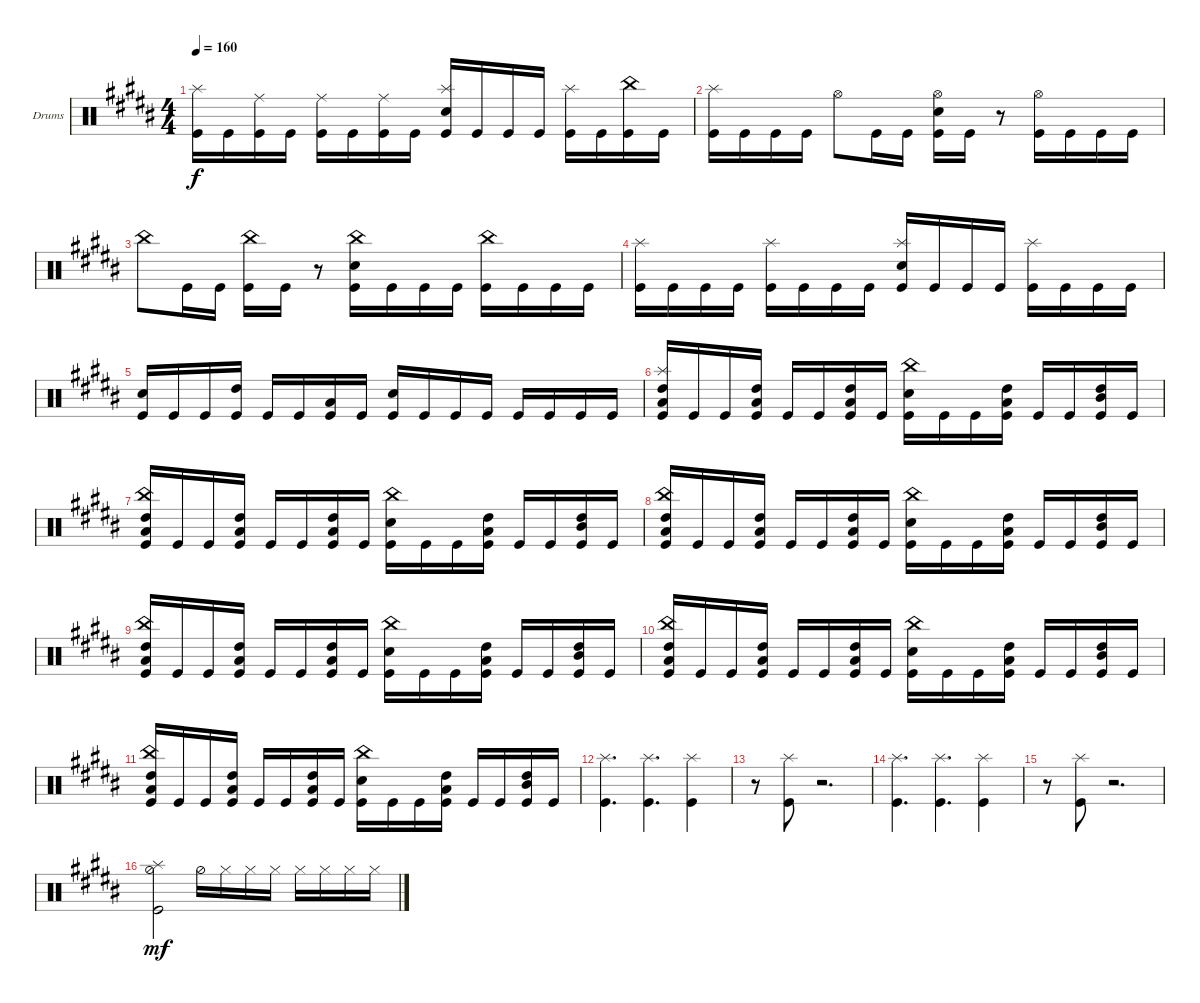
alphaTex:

\defaultSystemsLayout 4
\bracketExtendMode groupsimilarinstruments
\firstSystemTrackNameOrientation horizontal
\otherSystemsTrackNameOrientation horizontal
\track ("Drumkit" "Drums") {instrument percussion}
\staff {score}
\articulation defaults
\ts (4 4)
\tempo 160
\clef neutral
\scale
0.333333
\ks b
("Kick (hit)" "Splash (hit)").16{dy f} "Kick (hit)".16 ("Kick (hit)" "Ride (middle)").16 "Kick (hit)".16 ("Kick (hit)" "Ride (middle)").16 "Kick (hit)".16 ("Kick (hit)" "Ride (middle)").16 "Kick (hit)".16 ("Kick (hit)" "Snare (hit) 2" "Splash (hit)").16 "Kick (hit)".16 "Kick (hit)".16 "Kick (hit)".16 ("Kick (hit)" "Splash (hit)").16 "Kick (hit)".16 ("Kick (hit)" "China (hit)").16 "Kick (hit)".16 |
\scale
0.333333 ("Kick (hit)" "Splash (hit)").16 "Kick (hit)".16 "Kick (hit)".16 "Kick (hit)".16 "Hi-Hat (open)".8 "Kick (hit)".16 "Kick (hit)".16 ("Kick (hit)" "Snare (hit) 2" "Hi-Hat (open)").16 "Kick (hit)".16 r.8 ("Kick (hit)" "Hi-Hat (open)").16 "Kick (hit)".16 "Kick (hit)".16 "Kick (hit)".16 |
\scale
0.333333 "China (hit)".8 "Kick (hit)".16 "Kick (hit)".16 ("Kick (hit)" "China (hit)").16 "Kick (hit)".16 r.8 ("Kick (hit)" "Snare (hit) 2" "China (hit)").16 "Kick (hit)".16 "Kick (hit)".16 "Kick (hit)".16 ("Kick (hit)" "China (hit)").16 "Kick (hit)".16 "Kick (hit)".16 "Kick (hit)".16 |
\scale
0.333333 ("Kick (hit)" "Splash (hit)").16 "Kick (hit)".16 "Kick (hit)".16 "Kick (hit)".16 ("Kick (hit)" "Splash (hit)").16 "Kick (hit)".16 "Kick (hit)".16 "Kick (hit)".16 ("Kick (hit)" "Snare (hit) 2" "Splash (hit)").16 "Kick (hit)".16 "Kick (hit)".16 "Kick (hit)".16 ("Kick (hit)" "Splash (hit)").16 "Kick (hit)".16 "Kick (hit)".16 "Kick (hit)".16 |
\scale
0.333333 ("Kick (hit)" "Snare (hit) 2").16 "Kick (hit)".16 "Kick (hit)".16 ("Kick (hit)" "High Tom (hit)").16 "Kick (hit)".16 "Kick (hit)".16 ("Kick (hit)" "Low Tom (hit)").16 "Kick (hit)".16 ("Kick (hit)" "Snare (hit) 2").16 "Kick (hit)".16 "Kick (hit)".16 "Kick (hit)".16 "Kick (hit)".16 "Kick (hit)".16 "Kick (hit)".16 "Kick (hit)".16 |
\scale
0.333333 ("Kick (hit)" "Low Tom (hit)" "High Tom (hit)" "Splash (hit)").16 "Kick (hit)".16 "Kick (hit)".16 ("Kick (hit)" "High Tom (hit)" "Low Tom (hit)").16 "Kick (hit)".16 "Kick (hit)".16 ("Kick (hit)" "Low Tom (hit)" "High Tom (hit)").16 "Kick (hit)".16 ("Kick (hit)" "Snare (hit) 2" "China (hit)").16 "Kick (hit)".16 "Kick (hit)".16 ("Kick (hit)" "Low Tom (hit)" "High Tom (hit)").16 "Kick (hit)".16 "Kick (hit)".16 ("Kick (hit)" "Mid Tom (hit)" "High Tom (hit)").16 "Kick (hit)".16 |
\scale
0.333333 ("Kick (hit)" "Low Tom (hit)" "High Tom (hit)" "China (hit)").16 "Kick (hit)".16 "Kick (hit)".16 ("Kick (hit)" "High Tom (hit)" "Low Tom (hit)").16 "Kick (hit)".16 "Kick (hit)".16 ("Kick (hit)" "Low Tom (hit)" "High Tom (hit)").16 "Kick (hit)".16 ("Kick (hit)" "Snare (hit) 2" "China (hit)").16 "Kick (hit)".16 "Kick (hit)".16 ("Kick (hit)" "Low Tom (hit)" "High Tom (hit)").16 "Kick (hit)".16 "Kick (hit)".16 ("Kick (hit)" "Mid Tom (hit)" "High Tom (hit)").16 "Kick (hit)".16 |
\scale
0.333333 ("Kick (hit)" "Low Tom (hit)" "High Tom (hit)" "China (hit)").16 "Kick (hit)".16 "Kick (hit)".16 ("Kick (hit)" "High Tom (hit)" "Low Tom (hit)").16 "Kick (hit)".16 "Kick (hit)".16 ("Kick (hit)" "Low Tom (hit)" "High Tom (hit)").16 "Kick (hit)".16 ("Kick (hit)" "Snare (hit) 2" "China (hit)").16 "Kick (hit)".16 "Kick (hit)".16 ("Kick (hit)" "Low Tom (hit)" "High Tom (hit)").16 "Kick (hit)".16 "Kick (hit)".16 ("Kick (hit)" "Mid Tom (hit)" "High Tom (hit)").16 "Kick (hit)".16 |
\scale
0.333333 ("Kick (hit)" "Low Tom (hit)" "High Tom (hit)" "China (hit)").16 "Kick (hit)".16 "Kick (hit)".16 ("Kick (hit)" "High Tom (hit)" "Low Tom (hit)").16 "Kick (hit)".16 "Kick (hit)".16 ("Kick (hit)" "Low Tom (hit)" "High Tom (hit)").16 "Kick (hit)".16 ("Kick (hit)" "Snare (hit) 2" "China (hit)").16 "Kick (hit)".16 "Kick (hit)".16 ("Kick (hit)" "Low Tom (hit)" "High Tom (hit)").16 "Kick (hit)".16 "Kick (hit)".16 ("Kick (hit)" "Mid Tom (hit)" "High Tom (hit)").16 "Kick (hit)".16 |
\scale
0.333333 ("Kick (hit)" "Low Tom (hit)" "High Tom (hit)" "China (hit)").16 "Kick (hit)".16 "Kick (hit)".16 ("Kick (hit)" "High Tom (hit)" "Low Tom (hit)").16 "Kick (hit)".16 "Kick (hit)".16 ("Kick (hit)" "Low Tom (hit)" "High Tom (hit)").16 "Kick (hit)".16 ("Kick (hit)" "Snare (hit) 2" "China (hit)").16 "Kick (hit)".16 "Kick (hit)".16 ("Kick (hit)" "Low Tom (hit)" "High Tom (hit)").16 "Kick (hit)".16 "Kick (hit)".16 ("Kick (hit)" "Mid Tom (hit)" "High Tom (hit)").16 "Kick (hit)".16 |
\scale
0.333333 ("Kick (hit)" "Low Tom (hit)" "High Tom (hit)" "China (hit)").16 "Kick (hit)".16 "Kick (hit)".16 ("Kick (hit)" "High Tom (hit)" "Low Tom (hit)").16 "Kick (hit)".16 "Kick (hit)".16 ("Kick (hit)" "Low Tom (hit)" "High Tom (hit)").16 "Kick (hit)".16 ("Kick (hit)" "Snare (hit) 2" "China (hit)").16 "Kick (hit)".16 "Kick (hit)".16 ("Kick (hit)" "Low Tom (hit)" "High Tom (hit)").16 "Kick (hit)".16 "Kick (hit)".16 ("Kick (hit)" "Mid Tom (hit)" "High Tom (hit)").16 "Kick (hit)".16 |
\scale
0.333333 ("Kick (hit)" "Splash (hit)").4{d} ("Kick (hit)" "Splash (hit)").4{d} ("Kick (hit)" "Splash (hit)").4 |
\scale
0.333333 r.8 ("Kick (hit)" "Splash (hit)").8 r.2{d} |
\scale
0.333333 ("Kick (hit)" "Splash (hit)").4{d} ("Kick (hit)" "Splash (hit)").4{d} ("Kick (hit)" "Splash (hit)").4 |
\scale
0.333333 r.8 ("Kick (hit)" "Splash (hit)").8 r.2{d} |
\scale
0.333333 ("Hi-Hat (half)" "Kick (hit)" "Splash (hit)").2{dy mf} "Hi-Hat (half)".16 "Hi-Hat (closed)".16 "Hi-Hat (closed)".16 "Hi-Hat (closed)".16 "Hi-Hat (closed)".16 "Hi-Hat (closed)".16 "Hi-Hat (closed)".16 "Hi-Hat (closed)".16
